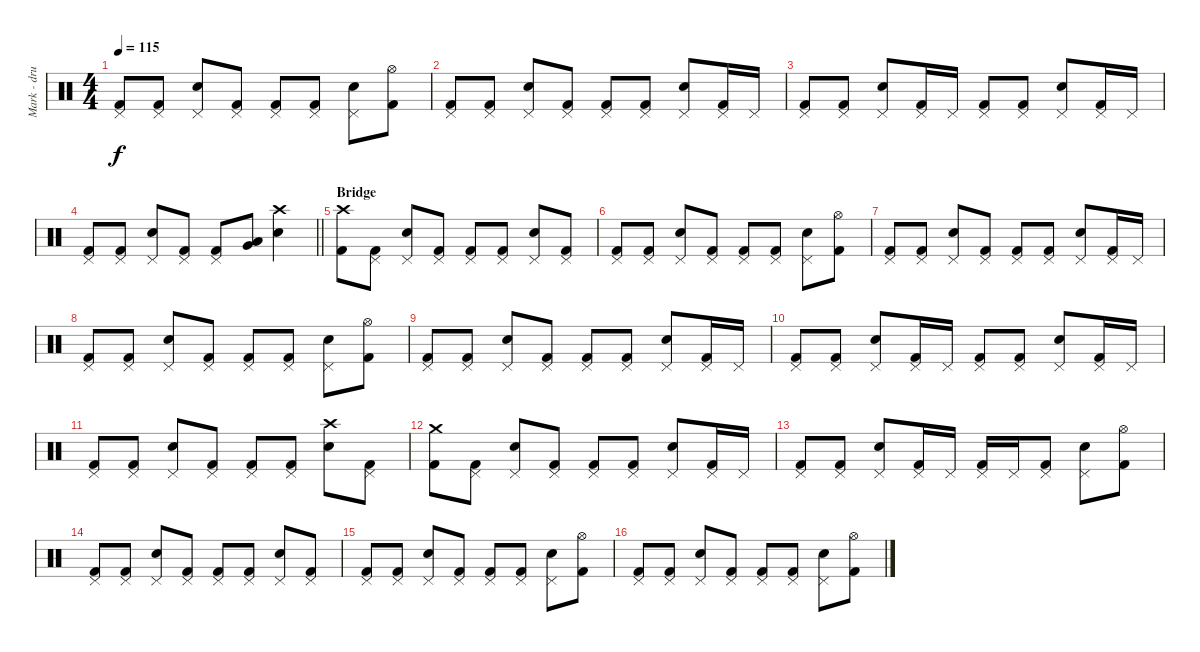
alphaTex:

\track ("Mark - drums" "Mark - dru") {instrument percussion}
\staff {score}
\articulation defaults
\ts (4 4)
\tempo 115
\clef neutral
\ks c
("Kick (hit) 2" "Pedal Hi-Hat (hit)").8{dy f} ("Kick (hit) 2" "Pedal Hi-Hat (hit)").8 ("Electric Snare (hit)" "Pedal Hi-Hat (hit)").8 ("Kick (hit) 2" "Pedal Hi-Hat (hit)").8 ("Kick (hit) 2" "Pedal Hi-Hat (hit)").8 ("Kick (hit) 2" "Pedal Hi-Hat (hit)").8 ("Electric Snare (hit)" "Pedal Hi-Hat (hit)").8 ("Kick (hit) 2" "Hi-Hat (open)").8 |
("Kick (hit) 2" "Pedal Hi-Hat (hit)").8 ("Kick (hit) 2" "Pedal Hi-Hat (hit)").8 ("Electric Snare (hit)" "Pedal Hi-Hat (hit)").8 ("Kick (hit) 2" "Pedal Hi-Hat (hit)").8 ("Kick (hit) 2" "Pedal Hi-Hat (hit)").8 ("Kick (hit) 2" "Pedal Hi-Hat (hit)").8 ("Electric Snare (hit)" "Pedal Hi-Hat (hit)").8 ("Kick (hit) 2" "Pedal Hi-Hat (hit)").16 "Pedal Hi-Hat (hit)".16 |
("Kick (hit) 2" "Pedal Hi-Hat (hit)").8 ("Kick (hit) 2" "Pedal Hi-Hat (hit)").8 ("Electric Snare (hit)" "Pedal Hi-Hat (hit)").8 ("Kick (hit) 2" "Pedal Hi-Hat (hit)").16 "Pedal Hi-Hat (hit)".16 ("Kick (hit) 2" "Pedal Hi-Hat (hit)").8 ("Kick (hit) 2" "Pedal Hi-Hat (hit)").8 ("Electric Snare (hit)" "Pedal Hi-Hat (hit)").8 ("Kick (hit) 2" "Pedal Hi-Hat (hit)").16 "Pedal Hi-Hat (hit)".16 |
\barLineRight lightlight
("Kick (hit) 2" "Pedal Hi-Hat (hit)").8 ("Kick (hit) 2" "Pedal Hi-Hat (hit)").8 ("Electric Snare (hit)" "Pedal Hi-Hat (hit)").8 ("Kick (hit) 2" "Pedal Hi-Hat (hit)").8 ("Kick (hit) 2" "Pedal Hi-Hat (hit)").8 ("Low Tom (hit)" "Very Low Tom (hit)").8 ("Electric Snare (hit)" "Crash high (hit)").4 |
\section ("" "Bridge")
("Kick (hit) 2" "Crash high (hit)").8 ("Kick (hit) 2" "Pedal Hi-Hat (hit)").8 ("Electric Snare (hit)" "Pedal Hi-Hat (hit)").8 ("Kick (hit) 2" "Pedal Hi-Hat (hit)").8 ("Kick (hit) 2" "Pedal Hi-Hat (hit)").8 ("Kick (hit) 2" "Pedal Hi-Hat (hit)").8 ("Electric Snare (hit)" "Pedal Hi-Hat (hit)").8 ("Kick (hit) 2" "Pedal Hi-Hat (hit)").8 |
("Kick (hit) 2" "Pedal Hi-Hat (hit)").8 ("Kick (hit) 2" "Pedal Hi-Hat (hit)").8 ("Electric Snare (hit)" "Pedal Hi-Hat (hit)").8 ("Kick (hit) 2" "Pedal Hi-Hat (hit)").8 ("Kick (hit) 2" "Pedal Hi-Hat (hit)").8 ("Kick (hit) 2" "Pedal Hi-Hat (hit)").8 ("Electric Snare (hit)" "Pedal Hi-Hat (hit)").8 ("Kick (hit) 2" "Hi-Hat (open)").8 |
("Kick (hit) 2" "Pedal Hi-Hat (hit)").8 ("Kick (hit) 2" "Pedal Hi-Hat (hit)").8 ("Electric Snare (hit)" "Pedal Hi-Hat (hit)").8 ("Kick (hit) 2" "Pedal Hi-Hat (hit)").8 ("Kick (hit) 2" "Pedal Hi-Hat (hit)").8 ("Kick (hit) 2" "Pedal Hi-Hat (hit)").8 ("Electric Snare (hit)" "Pedal Hi-Hat (hit)").8 ("Kick (hit) 2" "Pedal Hi-Hat (hit)").16 "Pedal Hi-Hat (hit)".16 |
("Kick (hit) 2" "Pedal Hi-Hat (hit)").8 ("Kick (hit) 2" "Pedal Hi-Hat (hit)").8 ("Electric Snare (hit)" "Pedal Hi-Hat (hit)").8 ("Kick (hit) 2" "Pedal Hi-Hat (hit)").8 ("Kick (hit) 2" "Pedal Hi-Hat (hit)").8 ("Kick (hit) 2" "Pedal Hi-Hat (hit)").8 ("Electric Snare (hit)" "Pedal Hi-Hat (hit)").8 ("Kick (hit) 2" "Hi-Hat (open)").8 |
("Kick (hit) 2" "Pedal Hi-Hat (hit)").8 ("Kick (hit) 2" "Pedal Hi-Hat (hit)").8 ("Electric Snare (hit)" "Pedal Hi-Hat (hit)").8 ("Kick (hit) 2" "Pedal Hi-Hat (hit)").8 ("Kick (hit) 2" "Pedal Hi-Hat (hit)").8 ("Kick (hit) 2" "Pedal Hi-Hat (hit)").8 ("Electric Snare (hit)" "Pedal Hi-Hat (hit)").8 ("Kick (hit) 2" "Pedal Hi-Hat (hit)").16 "Pedal Hi-Hat (hit)".16 |
("Kick (hit) 2" "Pedal Hi-Hat (hit)").8 ("Kick (hit) 2" "Pedal Hi-Hat (hit)").8 ("Electric Snare (hit)" "Pedal Hi-Hat (hit)").8 ("Kick (hit) 2" "Pedal Hi-Hat (hit)").16 "Pedal Hi-Hat (hit)".16 ("Kick (hit) 2" "Pedal Hi-Hat (hit)").8 ("Kick (hit) 2" "Pedal Hi-Hat (hit)").8 ("Electric Snare (hit)" "Pedal Hi-Hat (hit)").8 ("Kick (hit) 2" "Pedal Hi-Hat (hit)").16 "Pedal Hi-Hat (hit)".16 |
("Kick (hit) 2" "Pedal Hi-Hat (hit)").8 ("Kick (hit) 2" "Pedal Hi-Hat (hit)").8 ("Electric Snare (hit)" "Pedal Hi-Hat (hit)").8 ("Kick (hit) 2" "Pedal Hi-Hat (hit)").8 ("Kick (hit) 2" "Pedal Hi-Hat (hit)").8 ("Kick (hit) 2" "Pedal Hi-Hat (hit)").8 ("Electric Snare (hit)" "Crash high (hit)").8 ("Kick (hit) 2" "Pedal Hi-Hat (hit)").8 |
("Kick (hit) 2" "Crash medium (hit)").8 ("Kick (hit) 2" "Pedal Hi-Hat (hit)").8 ("Electric Snare (hit)" "Pedal Hi-Hat (hit)").8 ("Kick (hit) 2" "Pedal Hi-Hat (hit)").8 ("Kick (hit) 2" "Pedal Hi-Hat (hit)").8 ("Kick (hit) 2" "Pedal Hi-Hat (hit)").8 ("Electric Snare (hit)" "Pedal Hi-Hat (hit)").8 ("Kick (hit) 2" "Pedal Hi-Hat (hit)").16 "Pedal Hi-Hat (hit)".16 |
("Kick (hit) 2" "Pedal Hi-Hat (hit)").8 ("Kick (hit) 2" "Pedal Hi-Hat (hit)").8 ("Electric Snare (hit)" "Pedal Hi-Hat (hit)").8 ("Kick (hit) 2" "Pedal Hi-Hat (hit)").16 "Pedal Hi-Hat (hit)".16 ("Kick (hit) 2" "Pedal Hi-Hat (hit)").16 "Pedal Hi-Hat (hit)".16 ("Kick (hit) 2" "Pedal Hi-Hat (hit)").8 ("Electric Snare (hit)" "Pedal Hi-Hat (hit)").8 ("Kick (hit) 2" "Hi-Hat (open)").8 |
("Kick (hit) 2" "Pedal Hi-Hat (hit)").8 ("Kick (hit) 2" "Pedal Hi-Hat (hit)").8 ("Electric Snare (hit)" "Pedal Hi-Hat (hit)").8 ("Kick (hit) 2" "Pedal Hi-Hat (hit)").8 ("Kick (hit) 2" "Pedal Hi-Hat (hit)").8 ("Kick (hit) 2" "Pedal Hi-Hat (hit)").8 ("Electric Snare (hit)" "Pedal Hi-Hat (hit)").8 ("Kick (hit) 2" "Pedal Hi-Hat (hit)").8 |
("Kick (hit) 2" "Pedal Hi-Hat (hit)").8 ("Kick (hit) 2" "Pedal Hi-Hat (hit)").8 ("Electric Snare (hit)" "Pedal Hi-Hat (hit)").8 ("Kick (hit) 2" "Pedal Hi-Hat (hit)").8 ("Kick (hit) 2" "Pedal Hi-Hat (hit)").8 ("Kick (hit) 2" "Pedal Hi-Hat (hit)").8 ("Electric Snare (hit)" "Pedal Hi-Hat (hit)").8 ("Kick (hit) 2" "Hi-Hat (open)").8 |
("Kick (hit) 2" "Pedal Hi-Hat (hit)").8 ("Kick (hit) 2" "Pedal Hi-Hat (hit)").8 ("Electric Snare (hit)" "Pedal Hi-Hat (hit)").8 ("Kick (hit) 2" "Pedal Hi-Hat (hit)").8 ("Kick (hit) 2" "Pedal Hi-Hat (hit)").8 ("Kick (hit) 2" "Pedal Hi-Hat (hit)").8 ("Electric Snare (hit)" "Pedal Hi-Hat (hit)").8 ("Kick (hit) 2" "Hi-Hat (open)").8
